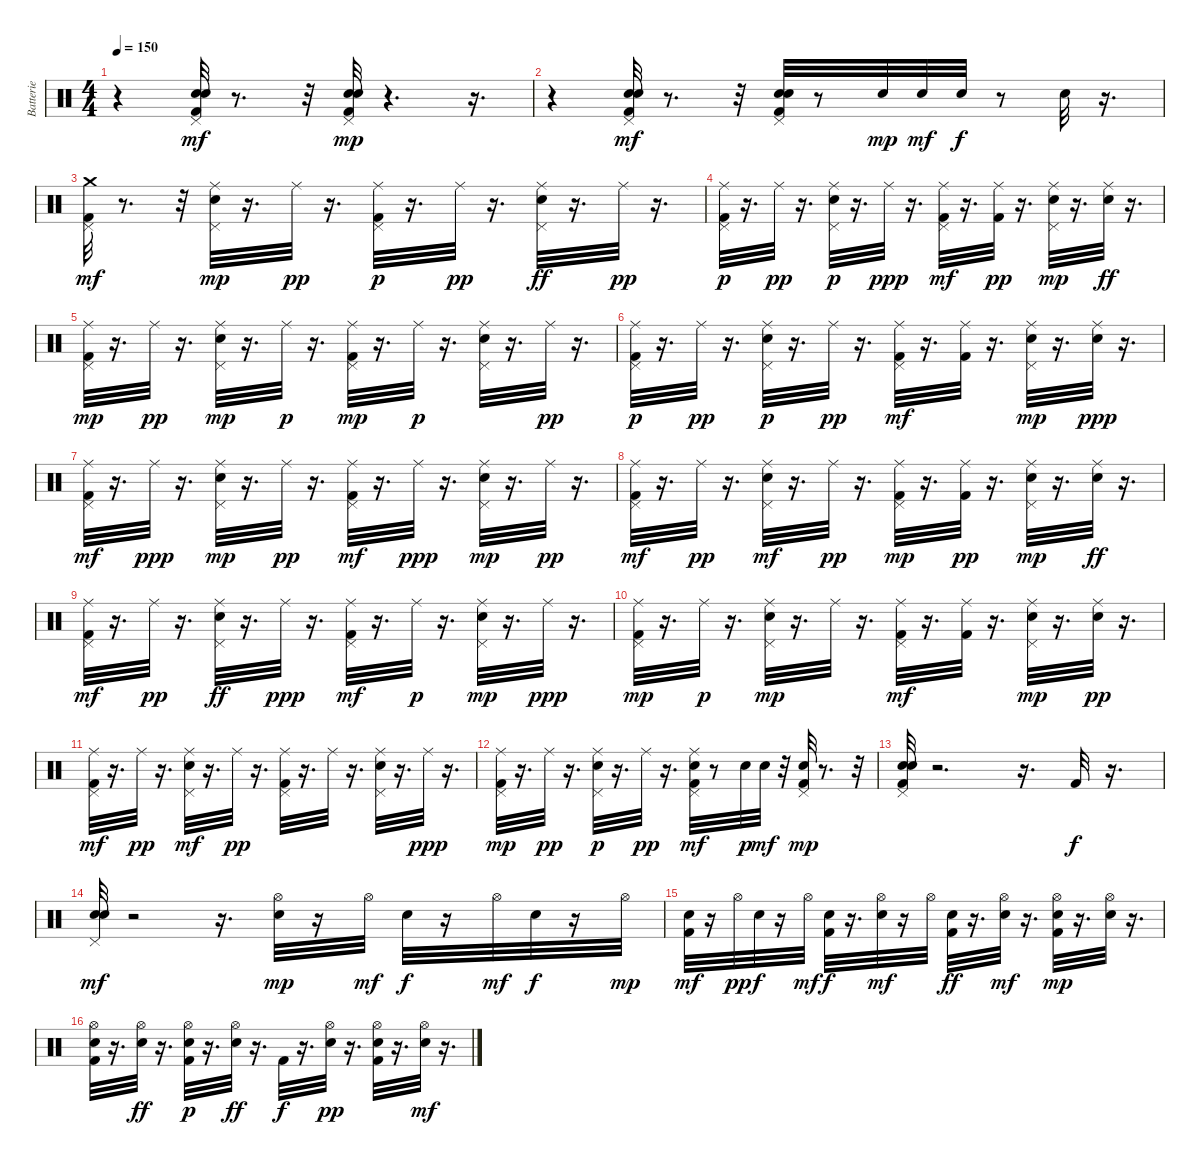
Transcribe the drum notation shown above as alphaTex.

\track ("Batterie" "Batterie") {instrument percussion}
\staff {score}
\articulation defaults
\ts (4 4)
\tempo 150
\clef neutral
\ks c
r.4{dy f} ("Electric Snare (hit)" "Kick (hit) 2" "Pedal Hi-Hat (hit)" "Electric Snare (hit)").32{dy mf} r.8{d} r.32 ("Electric Snare (hit)" "Pedal Hi-Hat (hit)" "Kick (hit) 2" "Electric Snare (hit)").32{dy mp} r.4{d} r.16{d} |
r.4 ("Electric Snare (hit)" "Electric Snare (hit)" "Pedal Hi-Hat (hit)" "Kick (hit) 2").32{dy mf} r.8{d} r.32 ("Electric Snare (hit)" "Pedal Hi-Hat (hit)" "Electric Snare (hit)" "Kick (hit) 2").32 r.8 "Electric Snare (hit)".32{dy mp} "Electric Snare (hit)".32{dy mf} "Electric Snare (hit)".32{dy f} r.8 "Electric Snare (hit)".32 r.16{d} |
("Pedal Hi-Hat (hit)" "Kick (hit) 2" "Crash medium (hit)").32{dy mf} r.8{d} r.32 ("Electric Snare (hit)" "Pedal Hi-Hat (hit)" "Ride (middle)").32{dy mp} r.16{d} "Ride (middle)".32{dy pp} r.16{d} ("Pedal Hi-Hat (hit)" "Kick (hit) 2" "Ride (middle)").32{dy p} r.16{d} "Ride (middle)".32{dy pp} r.16{d} ("Pedal Hi-Hat (hit)" "Ride (middle)" "Electric Snare (hit)").32{dy ff} r.16{d} "Ride (middle)".32{dy pp} r.16{d} |
("Pedal Hi-Hat (hit)" "Ride (middle)" "Kick (hit) 2").32{dy p} r.16{d} "Ride (middle)".32{dy pp} r.16{d} ("Pedal Hi-Hat (hit)" "Electric Snare (hit)" "Ride (middle)").32{dy p} r.16{d} "Ride (middle)".32{dy ppp} r.16{d} ("Ride (middle)" "Kick (hit) 2" "Pedal Hi-Hat (hit)").32{dy mf} r.16{d} ("Ride (middle)" "Kick (hit) 2").32{dy pp} r.16{d} ("Pedal Hi-Hat (hit)" "Ride (middle)" "Electric Snare (hit)").32{dy mp} r.16{d} ("Ride (middle)" "Electric Snare (hit)").32{dy ff} r.16{d} |
("Kick (hit) 2" "Ride (middle)" "Pedal Hi-Hat (hit)").32{dy mp} r.16{d} "Ride (middle)".32{dy pp} r.16{d} ("Electric Snare (hit)" "Ride (middle)" "Pedal Hi-Hat (hit)").32{dy mp} r.16{d} "Ride (middle)".32{dy p} r.16{d} ("Pedal Hi-Hat (hit)" "Kick (hit) 2" "Ride (middle)").32{dy mp} r.16{d} "Ride (middle)".32{dy p} r.16{d} ("Pedal Hi-Hat (hit)" "Electric Snare (hit)" "Ride (middle)").32 r.16{d} "Ride (middle)".32{dy pp} r.16{d} |
("Pedal Hi-Hat (hit)" "Kick (hit) 2" "Ride (middle)").32{dy p} r.16{d} "Ride (middle)".32{dy pp} r.16{d} ("Electric Snare (hit)" "Pedal Hi-Hat (hit)" "Ride (middle)").32{dy p} r.16{d} "Ride (middle)".32{dy pp} r.16{d} ("Kick (hit) 2" "Ride (middle)" "Pedal Hi-Hat (hit)").32{dy mf} r.16{d} ("Ride (middle)" "Kick (hit) 2").32 r.16{d} ("Electric Snare (hit)" "Ride (middle)" "Pedal Hi-Hat (hit)").32{dy mp} r.16{d} ("Ride (middle)" "Electric Snare (hit)").32{dy ppp} r.16{d} |
("Kick (hit) 2" "Ride (middle)" "Pedal Hi-Hat (hit)").32{dy mf} r.16{d} "Ride (middle)".32{dy ppp} r.16{d} ("Ride (middle)" "Electric Snare (hit)" "Pedal Hi-Hat (hit)").32{dy mp} r.16{d} "Ride (middle)".32{dy pp} r.16{d} ("Kick (hit) 2" "Ride (middle)" "Pedal Hi-Hat (hit)").32{dy mf} r.16{d} "Ride (middle)".32{dy ppp} r.16{d} ("Ride (middle)" "Electric Snare (hit)" "Pedal Hi-Hat (hit)").32{dy mp} r.16{d} "Ride (middle)".32{dy pp} r.16{d} |
("Kick (hit) 2" "Ride (middle)" "Pedal Hi-Hat (hit)").32{dy mf} r.16{d} "Ride (middle)".32{dy pp} r.16{d} ("Electric Snare (hit)" "Ride (middle)" "Pedal Hi-Hat (hit)").32{dy mf} r.16{d} "Ride (middle)".32{dy pp} r.16{d} ("Kick (hit) 2" "Pedal Hi-Hat (hit)" "Ride (middle)").32{dy mp} r.16{d} ("Kick (hit) 2" "Ride (middle)").32{dy pp} r.16{d} ("Ride (middle)" "Pedal Hi-Hat (hit)" "Electric Snare (hit)").32{dy mp} r.16{d} ("Ride (middle)" "Electric Snare (hit)").32{dy ff} r.16{d} |
("Kick (hit) 2" "Pedal Hi-Hat (hit)" "Ride (middle)").32{dy mf} r.16{d} "Ride (middle)".32{dy pp} r.16{d} ("Pedal Hi-Hat (hit)" "Ride (middle)" "Electric Snare (hit)").32{dy ff} r.16{d} "Ride (middle)".32{dy ppp} r.16{d} ("Kick (hit) 2" "Pedal Hi-Hat (hit)" "Ride (middle)").32{dy mf} r.16{d} "Ride (middle)".32{dy p} r.16{d} ("Electric Snare (hit)" "Pedal Hi-Hat (hit)" "Ride (middle)").32{dy mp} r.16{d} "Ride (middle)".32{dy ppp} r.16{d} |
("Pedal Hi-Hat (hit)" "Ride (middle)" "Kick (hit) 2").32{dy mp} r.16{d} "Ride (middle)".32{dy p} r.16{d} ("Electric Snare (hit)" "Pedal Hi-Hat (hit)" "Ride (middle)").32{dy mp} r.16{d} "Ride (middle)".32 r.16{d} ("Pedal Hi-Hat (hit)" "Kick (hit) 2" "Ride (middle)").32{dy mf} r.16{d} ("Ride (middle)" "Kick (hit) 2").32 r.16{d} ("Electric Snare (hit)" "Pedal Hi-Hat (hit)" "Ride (middle)").32{dy mp} r.16{d} ("Electric Snare (hit)" "Ride (middle)").32{dy pp} r.16{d} |
("Kick (hit) 2" "Pedal Hi-Hat (hit)" "Ride (middle)").32{dy mf} r.16{d} "Ride (middle)".32{dy pp} r.16{d} ("Electric Snare (hit)" "Ride (middle)" "Pedal Hi-Hat (hit)").32{dy mf} r.16{d} "Ride (middle)".32{dy pp} r.16{d} ("Kick (hit) 2" "Pedal Hi-Hat (hit)" "Ride (middle)").32 r.16{d} "Ride (middle)".32 r.16{d} ("Electric Snare (hit)" "Pedal Hi-Hat (hit)" "Ride (middle)").32 r.16{d} "Ride (middle)".32{dy ppp} r.16{d} |
("Kick (hit) 2" "Ride (middle)" "Pedal Hi-Hat (hit)").32{dy mp} r.16{d} "Ride (middle)".32{dy pp} r.16{d} ("Electric Snare (hit)" "Pedal Hi-Hat (hit)" "Ride (middle)").32{dy p} r.16{d} "Ride (middle)".32{dy pp} r.16{d} ("Electric Snare (hit)" "Ride (middle)" "Pedal Hi-Hat (hit)" "Kick (hit) 2").32{dy mf} r.8 "Electric Snare (hit)".32{dy p} "Electric Snare (hit)".32{dy mf} r.32 ("Electric Snare (hit)" "Kick (hit) 2" "Pedal Hi-Hat (hit)").32{dy mp} r.8{d} r.32 |
("Electric Snare (hit)" "Pedal Hi-Hat (hit)" "Kick (hit) 2" "Electric Snare (hit)").32 r.2{d} r.16{d} "Kick (hit) 2".32{dy f} r.16{d} |
("Electric Snare (hit)" "Pedal Hi-Hat (hit)" "Electric Snare (hit)").32{dy mf} r.2 r.16{d} ("Hi-Hat (open)" "Electric Snare (hit)").32{dy mp} r.16 "Hi-Hat (open)".32{dy mf} "Electric Snare (hit)".32{dy f} r.16 "Hi-Hat (open)".32{dy mf} "Electric Snare (hit)".32{dy f} r.16 "Hi-Hat (open)".32{dy mp} |
("Kick (hit) 2" "Electric Snare (hit)").32{dy mf} r.16 "Hi-Hat (open)".32{dy pp} "Electric Snare (hit)".32{dy f} r.16 "Hi-Hat (open)".32{dy mf} ("Kick (hit) 2" "Electric Snare (hit)").32{dy f} r.16{d} ("Hi-Hat (open)" "Electric Snare (hit)").32{dy mf} r.16 "Hi-Hat (open)".32 ("Kick (hit) 2" "Electric Snare (hit)").32{dy ff} r.16{d} ("Hi-Hat (open)" "Electric Snare (hit)").32{dy mf} r.16{d} ("Hi-Hat (open)" "Kick (hit) 2" "Electric Snare (hit)").32{dy mp} r.16{d} ("Hi-Hat (open)" "Electric Snare (hit)").32 r.16{d} |
("Hi-Hat (open)" "Kick (hit) 2" "Electric Snare (hit)").32 r.16{d} ("Hi-Hat (open)" "Electric Snare (hit)").32{dy ff} r.16{d} ("Hi-Hat (open)" "Electric Snare (hit)" "Kick (hit) 2").32{dy p} r.16{d} ("Hi-Hat (open)" "Electric Snare (hit)").32{dy ff} r.16{d} "Kick (hit) 2".32{dy f} r.16{d} ("Hi-Hat (open)" "Electric Snare (hit)").32{dy pp} r.16{d} ("Kick (hit) 2" "Electric Snare (hit)" "Hi-Hat (open)").32 r.16{d} ("Hi-Hat (open)" "Electric Snare (hit)").32{dy mf} r.16{d}
